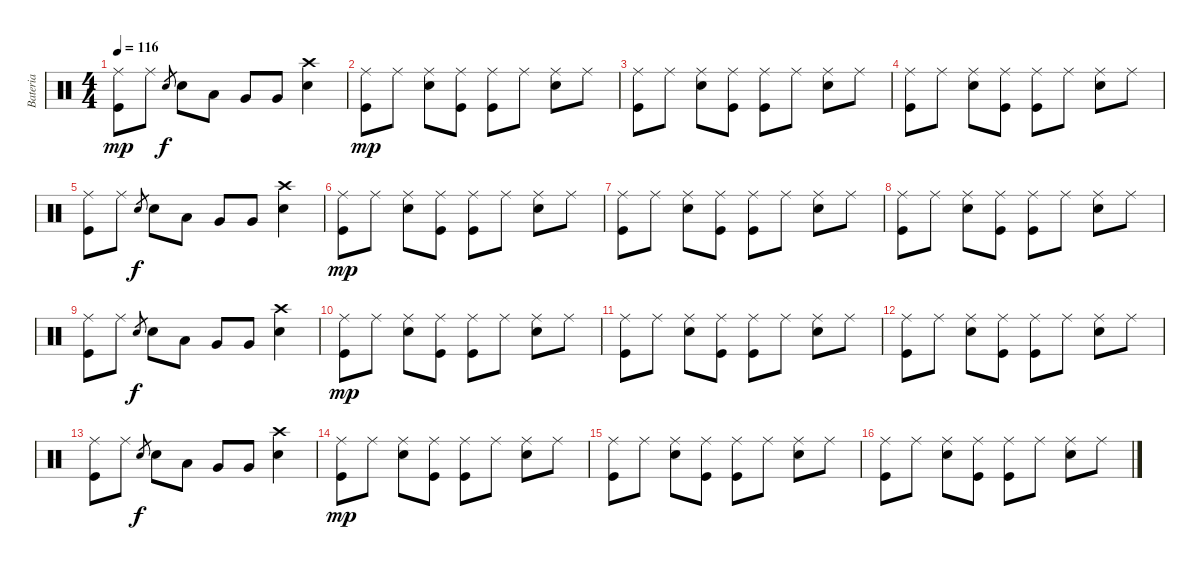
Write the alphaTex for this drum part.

\track ("Bateria" "Bateria") {instrument percussion}
\staff {score}
\articulation defaults
\ts (4 4)
\tempo 116
\clef neutral
\ks c
("Ride (middle)" "Kick (hit)").8{dy mp} "Ride (middle)".8 "Snare (hit) 2".8{gr dy f} "Snare (hit) 2".8 "Low Tom (hit)".8 "Very Low Tom (hit)".8 "Very Low Tom (hit)".8 ("Snare (hit) 2" "Crash high (hit)").4 |
("Ride (middle)" "Kick (hit)").8{dy mp} "Ride (middle)".8 ("Ride (middle)" "Snare (hit) 2").8 ("Ride (middle)" "Kick (hit)").8 ("Ride (middle)" "Kick (hit)").8 "Ride (middle)".8 ("Ride (middle)" "Snare (hit) 2").8 "Ride (middle)".8 |
("Ride (middle)" "Kick (hit)").8 "Ride (middle)".8 ("Ride (middle)" "Snare (hit) 2").8 ("Ride (middle)" "Kick (hit)").8 ("Ride (middle)" "Kick (hit)").8 "Ride (middle)".8 ("Ride (middle)" "Snare (hit) 2").8 "Ride (middle)".8 |
("Ride (middle)" "Kick (hit)").8 "Ride (middle)".8 ("Ride (middle)" "Snare (hit) 2").8 ("Ride (middle)" "Kick (hit)").8 ("Ride (middle)" "Kick (hit)").8 "Ride (middle)".8 ("Ride (middle)" "Snare (hit) 2").8 "Ride (middle)".8 |
("Ride (middle)" "Kick (hit)").8 "Ride (middle)".8 "Snare (hit) 2".8{gr dy f} "Snare (hit) 2".8 "Low Tom (hit)".8 "Very Low Tom (hit)".8 "Very Low Tom (hit)".8 ("Snare (hit) 2" "Crash high (hit)").4 |
("Ride (middle)" "Kick (hit)").8{dy mp} "Ride (middle)".8 ("Ride (middle)" "Snare (hit) 2").8 ("Ride (middle)" "Kick (hit)").8 ("Ride (middle)" "Kick (hit)").8 "Ride (middle)".8 ("Ride (middle)" "Snare (hit) 2").8 "Ride (middle)".8 |
("Ride (middle)" "Kick (hit)").8 "Ride (middle)".8 ("Ride (middle)" "Snare (hit) 2").8 ("Ride (middle)" "Kick (hit)").8 ("Ride (middle)" "Kick (hit)").8 "Ride (middle)".8 ("Ride (middle)" "Snare (hit) 2").8 "Ride (middle)".8 |
("Ride (middle)" "Kick (hit)").8 "Ride (middle)".8 ("Ride (middle)" "Snare (hit) 2").8 ("Ride (middle)" "Kick (hit)").8 ("Ride (middle)" "Kick (hit)").8 "Ride (middle)".8 ("Ride (middle)" "Snare (hit) 2").8 "Ride (middle)".8 |
("Ride (middle)" "Kick (hit)").8 "Ride (middle)".8 "Snare (hit) 2".8{gr dy f} "Snare (hit) 2".8 "Low Tom (hit)".8 "Very Low Tom (hit)".8 "Very Low Tom (hit)".8 ("Snare (hit) 2" "Crash high (hit)").4 |
("Ride (middle)" "Kick (hit)").8{dy mp} "Ride (middle)".8 ("Ride (middle)" "Snare (hit) 2").8 ("Ride (middle)" "Kick (hit)").8 ("Ride (middle)" "Kick (hit)").8 "Ride (middle)".8 ("Ride (middle)" "Snare (hit) 2").8 "Ride (middle)".8 |
("Ride (middle)" "Kick (hit)").8 "Ride (middle)".8 ("Ride (middle)" "Snare (hit) 2").8 ("Ride (middle)" "Kick (hit)").8 ("Ride (middle)" "Kick (hit)").8 "Ride (middle)".8 ("Ride (middle)" "Snare (hit) 2").8 "Ride (middle)".8 |
("Ride (middle)" "Kick (hit)").8 "Ride (middle)".8 ("Ride (middle)" "Snare (hit) 2").8 ("Ride (middle)" "Kick (hit)").8 ("Ride (middle)" "Kick (hit)").8 "Ride (middle)".8 ("Ride (middle)" "Snare (hit) 2").8 "Ride (middle)".8 |
("Ride (middle)" "Kick (hit)").8 "Ride (middle)".8 "Snare (hit) 2".8{gr dy f} "Snare (hit) 2".8 "Low Tom (hit)".8 "Very Low Tom (hit)".8 "Very Low Tom (hit)".8 ("Snare (hit) 2" "Crash high (hit)").4 |
("Ride (middle)" "Kick (hit)").8{dy mp volume 1} "Ride (middle)".8 ("Ride (middle)" "Snare (hit) 2").8 ("Ride (middle)" "Kick (hit)").8 ("Ride (middle)" "Kick (hit)").8 "Ride (middle)".8 ("Ride (middle)" "Snare (hit) 2").8 "Ride (middle)".8 |
("Ride (middle)" "Kick (hit)").8 "Ride (middle)".8 ("Ride (middle)" "Snare (hit) 2").8 ("Ride (middle)" "Kick (hit)").8 ("Ride (middle)" "Kick (hit)").8 "Ride (middle)".8 ("Ride (middle)" "Snare (hit) 2").8 "Ride (middle)".8 |
("Ride (middle)" "Kick (hit)").8 "Ride (middle)".8 ("Ride (middle)" "Snare (hit) 2").8 ("Ride (middle)" "Kick (hit)").8 ("Ride (middle)" "Kick (hit)").8 "Ride (middle)".8 ("Ride (middle)" "Snare (hit) 2").8 "Ride (middle)".8
